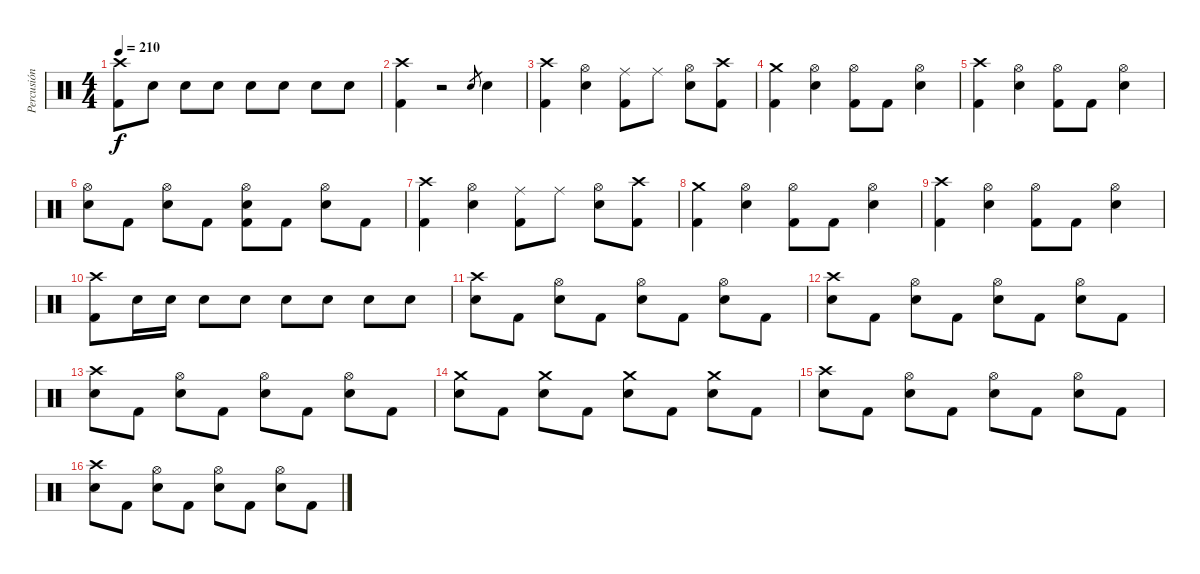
\track ("Percusión" "Percusión") {instrument percussion}
\staff {score}
\articulation defaults
\ts (4 4)
\tempo 210
\clef neutral
\ks c
("Crash high (hit)" "Kick (hit) 2").8{dy f} "Electric Snare (hit)".8 "Electric Snare (hit)".8 "Electric Snare (hit)".8 "Electric Snare (hit)".8 "Electric Snare (hit)".8 "Electric Snare (hit)".8 "Electric Snare (hit)".8 |
("Crash high (hit)" "Kick (hit) 2").4 r.2 "Electric Snare (hit)".8{gr} "Electric Snare (hit)".4 |
("Crash high (hit)" "Kick (hit) 2").4 ("Hi-Hat (open)" "Electric Snare (hit)").4 ("Ride (middle)" "Kick (hit) 2").8 "Ride (middle)".8 ("Hi-Hat (open)" "Electric Snare (hit)").8 ("Crash high (hit)" "Kick (hit) 2").8 |
("Crash medium (hit)" "Kick (hit) 2").4 ("Hi-Hat (open)" "Electric Snare (hit)").4 ("Hi-Hat (open)" "Kick (hit) 2").8 "Kick (hit) 2".8 ("Hi-Hat (open)" "Electric Snare (hit)").4 |
("Crash high (hit)" "Kick (hit) 2").4 ("Hi-Hat (open)" "Electric Snare (hit)").4 ("Hi-Hat (open)" "Kick (hit) 2").8 "Kick (hit) 2".8 ("Hi-Hat (open)" "Electric Snare (hit)").4 |
("Hi-Hat (open)" "Electric Snare (hit)").8 "Kick (hit) 2".8 ("Hi-Hat (open)" "Electric Snare (hit)").8 "Kick (hit) 2".8 ("Hi-Hat (open)" "Electric Snare (hit)" "Kick (hit) 2").8 "Kick (hit) 2".8 ("Hi-Hat (open)" "Electric Snare (hit)").8 "Kick (hit) 2".8 |
("Crash high (hit)" "Kick (hit) 2").4 ("Hi-Hat (open)" "Electric Snare (hit)").4 ("Ride (middle)" "Kick (hit) 2").8 "Ride (middle)".8 ("Hi-Hat (open)" "Electric Snare (hit)").8 ("Crash high (hit)" "Kick (hit) 2").8 |
("Crash medium (hit)" "Kick (hit) 2").4 ("Hi-Hat (open)" "Electric Snare (hit)").4 ("Hi-Hat (open)" "Kick (hit) 2").8 "Kick (hit) 2".8 ("Hi-Hat (open)" "Electric Snare (hit)").4 |
("Crash high (hit)" "Kick (hit) 2").4 ("Hi-Hat (open)" "Electric Snare (hit)").4 ("Hi-Hat (open)" "Kick (hit) 2").8 "Kick (hit) 2".8 ("Hi-Hat (open)" "Electric Snare (hit)").4 |
("Crash high (hit)" "Kick (hit) 2").8 "Electric Snare (hit)".16 "Electric Snare (hit)".16 "Electric Snare (hit)".8 "Electric Snare (hit)".8 "Electric Snare (hit)".8 "Electric Snare (hit)".8 "Electric Snare (hit)".8 "Electric Snare (hit)".8 |
("Crash high (hit)" "Electric Snare (hit)").8 "Kick (hit) 2".8 ("Hi-Hat (open)" "Electric Snare (hit)").8 "Kick (hit) 2".8 ("Hi-Hat (open)" "Electric Snare (hit)").8 "Kick (hit) 2".8 ("Hi-Hat (open)" "Electric Snare (hit)").8 "Kick (hit) 2".8 |
("Crash high (hit)" "Electric Snare (hit)").8 "Kick (hit) 2".8 ("Hi-Hat (open)" "Electric Snare (hit)").8 "Kick (hit) 2".8 ("Hi-Hat (open)" "Electric Snare (hit)").8 "Kick (hit) 2".8 ("Hi-Hat (open)" "Electric Snare (hit)").8 "Kick (hit) 2".8 |
("Crash high (hit)" "Electric Snare (hit)").8 "Kick (hit) 2".8 ("Hi-Hat (open)" "Electric Snare (hit)").8 "Kick (hit) 2".8 ("Hi-Hat (open)" "Electric Snare (hit)").8 "Kick (hit) 2".8 ("Hi-Hat (open)" "Electric Snare (hit)").8 "Kick (hit) 2".8 |
("Crash medium (hit)" "Electric Snare (hit)").8 "Kick (hit) 2".8 ("Crash medium (hit)" "Electric Snare (hit)").8 "Kick (hit) 2".8 ("Crash medium (hit)" "Electric Snare (hit)").8 "Kick (hit) 2".8 ("Crash medium (hit)" "Electric Snare (hit)").8 "Kick (hit) 2".8 |
("Crash high (hit)" "Electric Snare (hit)").8 "Kick (hit) 2".8 ("Hi-Hat (open)" "Electric Snare (hit)").8 "Kick (hit) 2".8 ("Hi-Hat (open)" "Electric Snare (hit)").8 "Kick (hit) 2".8 ("Hi-Hat (open)" "Electric Snare (hit)").8 "Kick (hit) 2".8 |
("Crash high (hit)" "Electric Snare (hit)").8 "Kick (hit) 2".8 ("Hi-Hat (open)" "Electric Snare (hit)").8 "Kick (hit) 2".8 ("Hi-Hat (open)" "Electric Snare (hit)").8 "Kick (hit) 2".8 ("Hi-Hat (open)" "Electric Snare (hit)").8 "Kick (hit) 2".8
